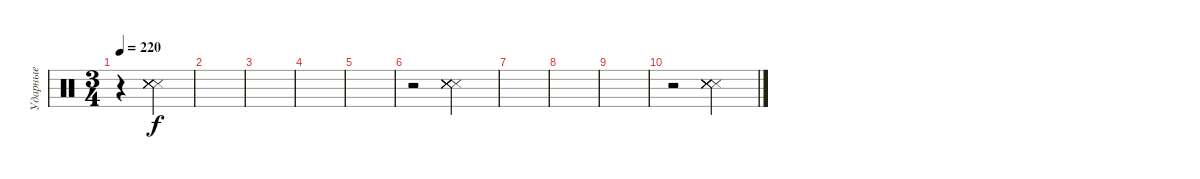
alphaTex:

\track ("Ударные" "Ударные") {instrument percussion}
\staff {score}
\articulation defaults
\ts (3 4)
\tempo 220
\clef neutral
\ks c
r.4{dy f} ("Snare (side stick) 3" "Snare (side stick) 3" "Snare (side stick) 3" "Snare (side stick) 3" "Snare (side stick) 3" "Snare (side stick) 3").4 |
|
|
|
|
r.2 ("Snare (side stick) 3" "Snare (side stick) 3" "Snare (side stick) 3" "Snare (side stick) 3" "Snare (side stick) 3" "Snare (side stick) 3").2 |
|
|
|
r.2 ("Snare (side stick) 3" "Snare (side stick) 3" "Snare (side stick) 3" "Snare (side stick) 3" "Snare (side stick) 3" "Snare (side stick) 3").2
